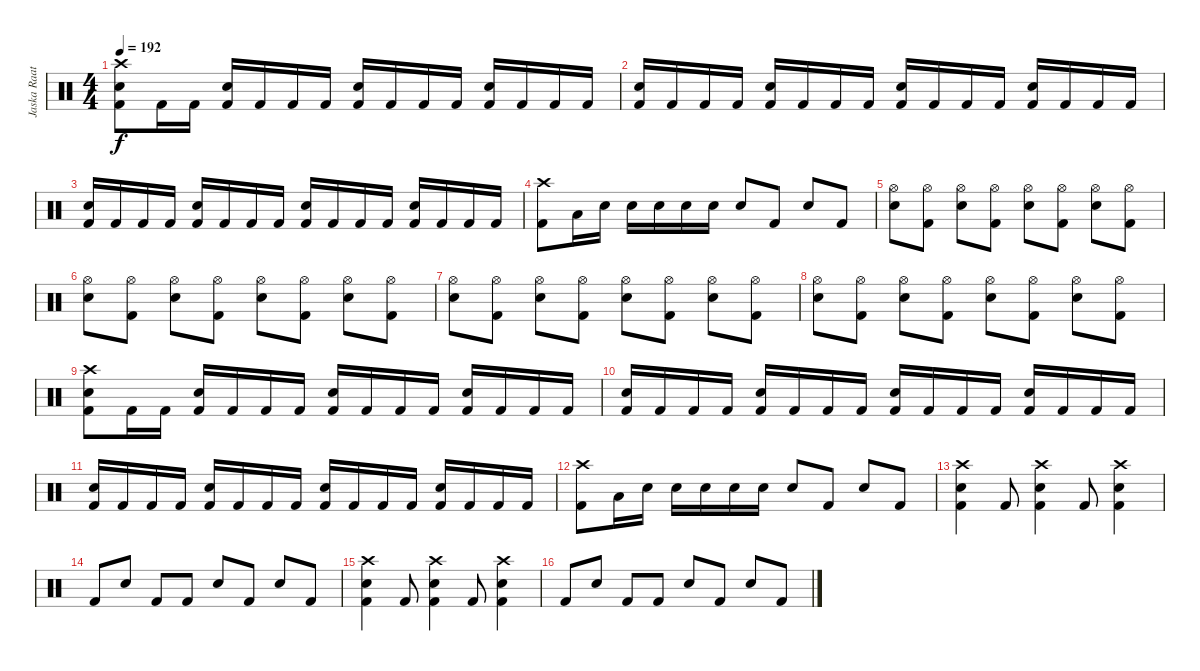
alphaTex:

\track ("Jaska Raatikainen" "Jaska Raat") {instrument percussion}
\staff {score}
\articulation defaults
\ts (4 4)
\tempo 192
\clef neutral
\ks c
("Crash high (hit)" "Snare (hit) 2" "Kick (hit) 2").8{dy f} "Kick (hit) 2".16 "Kick (hit) 2".16 ("Snare (hit) 2" "Kick (hit) 2").16 "Kick (hit) 2".16 "Kick (hit) 2".16 "Kick (hit) 2".16 ("Snare (hit) 2" "Kick (hit) 2").16 "Kick (hit) 2".16 "Kick (hit) 2".16 "Kick (hit) 2".16 ("Snare (hit) 2" "Kick (hit) 2").16 "Kick (hit) 2".16 "Kick (hit) 2".16 "Kick (hit) 2".16 |
("Snare (hit) 2" "Kick (hit) 2").16 "Kick (hit) 2".16 "Kick (hit) 2".16 "Kick (hit) 2".16 ("Snare (hit) 2" "Kick (hit) 2").16 "Kick (hit) 2".16 "Kick (hit) 2".16 "Kick (hit) 2".16 ("Snare (hit) 2" "Kick (hit) 2").16 "Kick (hit) 2".16 "Kick (hit) 2".16 "Kick (hit) 2".16 ("Snare (hit) 2" "Kick (hit) 2").16 "Kick (hit) 2".16 "Kick (hit) 2".16 "Kick (hit) 2".16 |
("Snare (hit) 2" "Kick (hit) 2").16 "Kick (hit) 2".16 "Kick (hit) 2".16 "Kick (hit) 2".16 ("Snare (hit) 2" "Kick (hit) 2").16 "Kick (hit) 2".16 "Kick (hit) 2".16 "Kick (hit) 2".16 ("Snare (hit) 2" "Kick (hit) 2").16 "Kick (hit) 2".16 "Kick (hit) 2".16 "Kick (hit) 2".16 ("Snare (hit) 2" "Kick (hit) 2").16 "Kick (hit) 2".16 "Kick (hit) 2".16 "Kick (hit) 2".16 |
("Crash high (hit)" "Kick (hit) 2").8 "Low Floor Tom (hit)".16 "Snare (hit) 2".16 "Snare (hit) 2".16 "Snare (hit) 2".16 "Snare (hit) 2".16 "Snare (hit) 2".16 "Snare (hit) 2".8 "Kick (hit) 2".8 "Snare (hit) 2".8 "Kick (hit) 2".8 |
("Hi-Hat (open)" "Snare (hit) 2").8 ("Hi-Hat (open)" "Kick (hit) 2").8 ("Hi-Hat (open)" "Snare (hit) 2").8 ("Hi-Hat (open)" "Kick (hit) 2").8 ("Hi-Hat (open)" "Snare (hit) 2").8 ("Hi-Hat (open)" "Kick (hit) 2").8 ("Hi-Hat (open)" "Snare (hit) 2").8 ("Hi-Hat (open)" "Kick (hit) 2").8 |
("Hi-Hat (open)" "Snare (hit) 2").8 ("Hi-Hat (open)" "Kick (hit) 2").8 ("Hi-Hat (open)" "Snare (hit) 2").8 ("Hi-Hat (open)" "Kick (hit) 2").8 ("Hi-Hat (open)" "Snare (hit) 2").8 ("Hi-Hat (open)" "Kick (hit) 2").8 ("Hi-Hat (open)" "Snare (hit) 2").8 ("Hi-Hat (open)" "Kick (hit) 2").8 |
("Hi-Hat (open)" "Snare (hit) 2").8 ("Hi-Hat (open)" "Kick (hit) 2").8 ("Hi-Hat (open)" "Snare (hit) 2").8 ("Hi-Hat (open)" "Kick (hit) 2").8 ("Hi-Hat (open)" "Snare (hit) 2").8 ("Hi-Hat (open)" "Kick (hit) 2").8 ("Hi-Hat (open)" "Snare (hit) 2").8 ("Hi-Hat (open)" "Kick (hit) 2").8 |
("Hi-Hat (open)" "Snare (hit) 2").8 ("Hi-Hat (open)" "Kick (hit) 2").8 ("Hi-Hat (open)" "Snare (hit) 2").8 ("Hi-Hat (open)" "Kick (hit) 2").8 ("Hi-Hat (open)" "Snare (hit) 2").8 ("Hi-Hat (open)" "Kick (hit) 2").8 ("Hi-Hat (open)" "Snare (hit) 2").8 ("Hi-Hat (open)" "Kick (hit) 2").8 |
("Crash high (hit)" "Snare (hit) 2" "Kick (hit) 2").8 "Kick (hit) 2".16 "Kick (hit) 2".16 ("Snare (hit) 2" "Kick (hit) 2").16 "Kick (hit) 2".16 "Kick (hit) 2".16 "Kick (hit) 2".16 ("Snare (hit) 2" "Kick (hit) 2").16 "Kick (hit) 2".16 "Kick (hit) 2".16 "Kick (hit) 2".16 ("Snare (hit) 2" "Kick (hit) 2").16 "Kick (hit) 2".16 "Kick (hit) 2".16 "Kick (hit) 2".16 |
("Snare (hit) 2" "Kick (hit) 2").16 "Kick (hit) 2".16 "Kick (hit) 2".16 "Kick (hit) 2".16 ("Snare (hit) 2" "Kick (hit) 2").16 "Kick (hit) 2".16 "Kick (hit) 2".16 "Kick (hit) 2".16 ("Snare (hit) 2" "Kick (hit) 2").16 "Kick (hit) 2".16 "Kick (hit) 2".16 "Kick (hit) 2".16 ("Snare (hit) 2" "Kick (hit) 2").16 "Kick (hit) 2".16 "Kick (hit) 2".16 "Kick (hit) 2".16 |
("Snare (hit) 2" "Kick (hit) 2").16 "Kick (hit) 2".16 "Kick (hit) 2".16 "Kick (hit) 2".16 ("Snare (hit) 2" "Kick (hit) 2").16 "Kick (hit) 2".16 "Kick (hit) 2".16 "Kick (hit) 2".16 ("Snare (hit) 2" "Kick (hit) 2").16 "Kick (hit) 2".16 "Kick (hit) 2".16 "Kick (hit) 2".16 ("Snare (hit) 2" "Kick (hit) 2").16 "Kick (hit) 2".16 "Kick (hit) 2".16 "Kick (hit) 2".16 |
("Crash high (hit)" "Kick (hit) 2").8 "Low Floor Tom (hit)".16 "Snare (hit) 2".16 "Snare (hit) 2".16 "Snare (hit) 2".16 "Snare (hit) 2".16 "Snare (hit) 2".16 "Snare (hit) 2".8 "Kick (hit) 2".8 "Snare (hit) 2".8 "Kick (hit) 2".8 |
("Crash high (hit)" "Snare (hit) 2" "Kick (hit) 2").4 "Kick (hit) 2".8 ("Crash high (hit)" "Snare (hit) 2" "Kick (hit) 2").4 "Kick (hit) 2".8 ("Crash high (hit)" "Snare (hit) 2" "Kick (hit) 2").4 |
"Kick (hit) 2".8 "Snare (hit) 2".8 "Kick (hit) 2".8 "Kick (hit) 2".8 "Snare (hit) 2".8 "Kick (hit) 2".8 "Snare (hit) 2".8 "Kick (hit) 2".8 |
("Crash high (hit)" "Snare (hit) 2" "Kick (hit) 2").4 "Kick (hit) 2".8 ("Crash high (hit)" "Snare (hit) 2" "Kick (hit) 2").4 "Kick (hit) 2".8 ("Crash high (hit)" "Snare (hit) 2" "Kick (hit) 2").4 |
"Kick (hit) 2".8 "Snare (hit) 2".8 "Kick (hit) 2".8 "Kick (hit) 2".8 "Snare (hit) 2".8 "Kick (hit) 2".8 "Snare (hit) 2".8 "Kick (hit) 2".8
